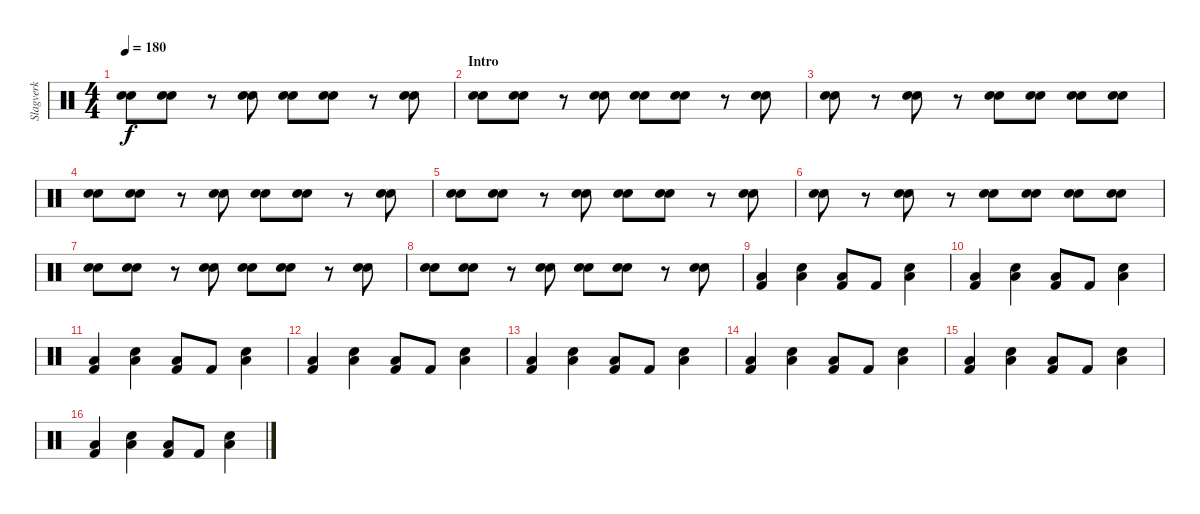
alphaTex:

\track ("Slagverk" "Slagverk") {instrument percussion}
\staff {score}
\articulation defaults
\ts (4 4)
\tempo 180
\clef neutral
\ks c
("Electric Snare (hit)" "Snare (hit) 2").8{dy f} ("Electric Snare (hit)" "Snare (hit) 2").8 r.8 ("Electric Snare (hit)" "Snare (hit) 2").8 ("Electric Snare (hit)" "Snare (hit) 2").8 ("Electric Snare (hit)" "Snare (hit) 2").8 r.8 ("Electric Snare (hit)" "Snare (hit) 2").8 |
\section ("" "Intro")
("Electric Snare (hit)" "Snare (hit) 2").8 ("Electric Snare (hit)" "Snare (hit) 2").8 r.8 ("Electric Snare (hit)" "Snare (hit) 2").8 ("Electric Snare (hit)" "Snare (hit) 2").8 ("Electric Snare (hit)" "Snare (hit) 2").8 r.8 ("Electric Snare (hit)" "Snare (hit) 2").8 |
("Electric Snare (hit)" "Snare (hit) 2").8 r.8 ("Electric Snare (hit)" "Snare (hit) 2").8 r.8 ("Electric Snare (hit)" "Snare (hit) 2").8 ("Electric Snare (hit)" "Snare (hit) 2").8 ("Electric Snare (hit)" "Snare (hit) 2").8 ("Electric Snare (hit)" "Snare (hit) 2").8 |
("Electric Snare (hit)" "Snare (hit) 2").8 ("Electric Snare (hit)" "Snare (hit) 2").8 r.8 ("Electric Snare (hit)" "Snare (hit) 2").8 ("Electric Snare (hit)" "Snare (hit) 2").8 ("Electric Snare (hit)" "Snare (hit) 2").8 r.8 ("Electric Snare (hit)" "Snare (hit) 2").8 |
("Electric Snare (hit)" "Snare (hit) 2").8 ("Electric Snare (hit)" "Snare (hit) 2").8 r.8 ("Electric Snare (hit)" "Snare (hit) 2").8 ("Electric Snare (hit)" "Snare (hit) 2").8 ("Electric Snare (hit)" "Snare (hit) 2").8 r.8 ("Electric Snare (hit)" "Snare (hit) 2").8 |
("Electric Snare (hit)" "Snare (hit) 2").8 r.8 ("Electric Snare (hit)" "Snare (hit) 2").8 r.8 ("Electric Snare (hit)" "Snare (hit) 2").8 ("Electric Snare (hit)" "Snare (hit) 2").8 ("Electric Snare (hit)" "Snare (hit) 2").8 ("Electric Snare (hit)" "Snare (hit) 2").8 |
("Electric Snare (hit)" "Snare (hit) 2").8 ("Electric Snare (hit)" "Snare (hit) 2").8 r.8 ("Electric Snare (hit)" "Snare (hit) 2").8 ("Electric Snare (hit)" "Snare (hit) 2").8 ("Electric Snare (hit)" "Snare (hit) 2").8 r.8 ("Electric Snare (hit)" "Snare (hit) 2").8 |
("Electric Snare (hit)" "Snare (hit) 2").8 ("Electric Snare (hit)" "Snare (hit) 2").8 r.8 ("Electric Snare (hit)" "Snare (hit) 2").8 ("Electric Snare (hit)" "Snare (hit) 2").8 ("Electric Snare (hit)" "Snare (hit) 2").8 r.8 ("Electric Snare (hit)" "Snare (hit) 2").8 |
("Low Tom (hit)" "Kick (hit) 2").4 ("Low Tom (hit)" "Snare (hit) 2").4 ("Low Tom (hit)" "Kick (hit) 2").8 "Kick (hit) 2".8 ("Low Tom (hit)" "Snare (hit) 2").4 |
("Low Tom (hit)" "Kick (hit) 2").4 ("Low Tom (hit)" "Snare (hit) 2").4 ("Low Tom (hit)" "Kick (hit) 2").8 "Kick (hit) 2".8 ("Low Tom (hit)" "Snare (hit) 2").4 |
("Low Tom (hit)" "Kick (hit) 2").4 ("Low Tom (hit)" "Snare (hit) 2").4 ("Low Tom (hit)" "Kick (hit) 2").8 "Kick (hit) 2".8 ("Low Tom (hit)" "Snare (hit) 2").4 |
("Low Tom (hit)" "Kick (hit) 2").4 ("Low Tom (hit)" "Snare (hit) 2").4 ("Low Tom (hit)" "Kick (hit) 2").8 "Kick (hit) 2".8 ("Low Tom (hit)" "Snare (hit) 2").4 |
("Low Tom (hit)" "Kick (hit) 2").4 ("Low Tom (hit)" "Snare (hit) 2").4 ("Low Tom (hit)" "Kick (hit) 2").8 "Kick (hit) 2".8 ("Low Tom (hit)" "Snare (hit) 2").4 |
("Low Tom (hit)" "Kick (hit) 2").4 ("Low Tom (hit)" "Snare (hit) 2").4 ("Low Tom (hit)" "Kick (hit) 2").8 "Kick (hit) 2".8 ("Low Tom (hit)" "Snare (hit) 2").4 |
("Low Tom (hit)" "Kick (hit) 2").4 ("Low Tom (hit)" "Snare (hit) 2").4 ("Low Tom (hit)" "Kick (hit) 2").8 "Kick (hit) 2".8 ("Low Tom (hit)" "Snare (hit) 2").4 |
("Low Tom (hit)" "Kick (hit) 2").4 ("Low Tom (hit)" "Snare (hit) 2").4 ("Low Tom (hit)" "Kick (hit) 2").8 "Kick (hit) 2".8 ("Low Tom (hit)" "Snare (hit) 2").4
